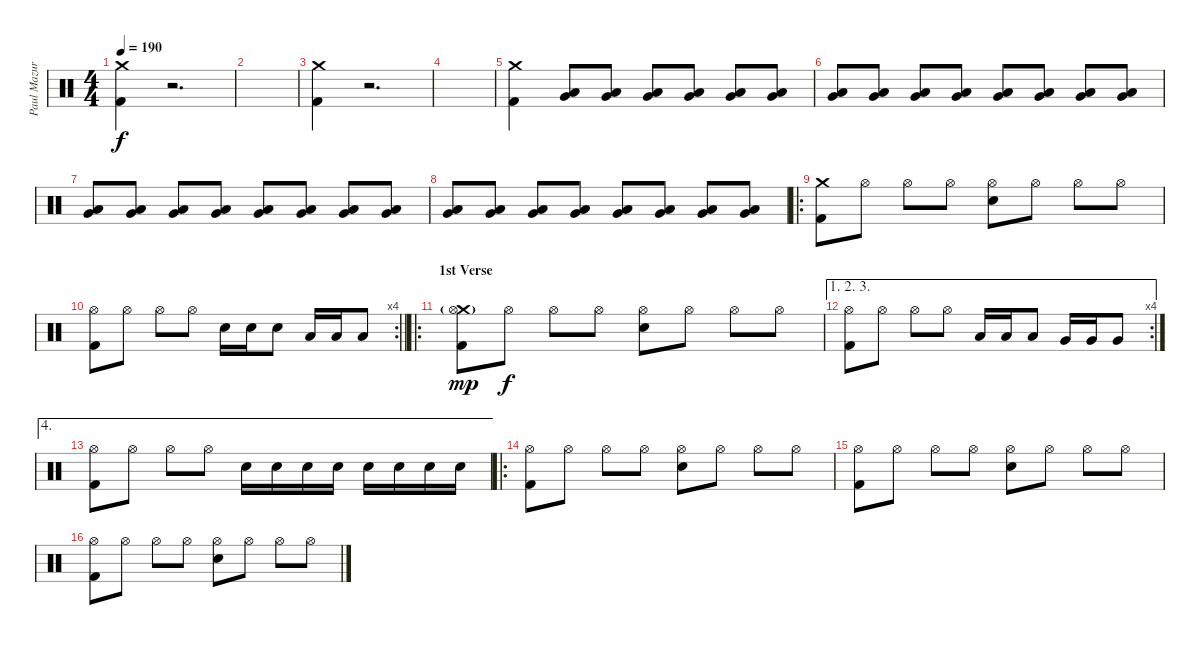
\track ("Paul Mazurkiewicz" "Paul Mazur") {instrument percussion}
\staff {score}
\articulation defaults
\ts (4 4)
\tempo 190
\clef neutral
\ks c
("Crash medium (hit)" "Kick (hit) 2").4{dy f} r.2{d} |
|
("Crash medium (hit)" "Kick (hit) 2").4 r.2{d} |
|
("Crash medium (hit)" "Kick (hit) 2").4 ("Very Low Tom (hit)" "Low Floor Tom (hit)").8{volume 7} ("Very Low Tom (hit)" "Low Floor Tom (hit)").8{volume 13} ("Very Low Tom (hit)" "Low Floor Tom (hit)").8 ("Very Low Tom (hit)" "Low Floor Tom (hit)").8 ("Very Low Tom (hit)" "Low Floor Tom (hit)").8 ("Very Low Tom (hit)" "Low Floor Tom (hit)").8 |
("Very Low Tom (hit)" "Low Floor Tom (hit)").8 ("Very Low Tom (hit)" "Low Floor Tom (hit)").8 ("Very Low Tom (hit)" "Low Floor Tom (hit)").8 ("Very Low Tom (hit)" "Low Floor Tom (hit)").8 ("Very Low Tom (hit)" "Low Floor Tom (hit)").8 ("Very Low Tom (hit)" "Low Floor Tom (hit)").8 ("Very Low Tom (hit)" "Low Floor Tom (hit)").8 ("Very Low Tom (hit)" "Low Floor Tom (hit)").8 |
("Very Low Tom (hit)" "Low Floor Tom (hit)").8 ("Very Low Tom (hit)" "Low Floor Tom (hit)").8 ("Very Low Tom (hit)" "Low Floor Tom (hit)").8 ("Very Low Tom (hit)" "Low Floor Tom (hit)").8 ("Very Low Tom (hit)" "Low Floor Tom (hit)").8 ("Very Low Tom (hit)" "Low Floor Tom (hit)").8 ("Very Low Tom (hit)" "Low Floor Tom (hit)").8 ("Very Low Tom (hit)" "Low Floor Tom (hit)").8 |
("Very Low Tom (hit)" "Low Floor Tom (hit)").8 ("Very Low Tom (hit)" "Low Floor Tom (hit)").8 ("Very Low Tom (hit)" "Low Floor Tom (hit)").8 ("Very Low Tom (hit)" "Low Floor Tom (hit)").8 ("Very Low Tom (hit)" "Low Floor Tom (hit)").8 ("Very Low Tom (hit)" "Low Floor Tom (hit)").8 ("Very Low Tom (hit)" "Low Floor Tom (hit)").8 ("Very Low Tom (hit)" "Low Floor Tom (hit)").8 |
\ro
("Crash medium (hit)" "Kick (hit) 2").8 "Hi-Hat (open)".8 "Hi-Hat (open)".8 "Hi-Hat (open)".8 ("Hi-Hat (open)" "Electric Snare (hit)").8 "Hi-Hat (open)".8 "Hi-Hat (open)".8 "Hi-Hat (open)".8 |
\rc 4
\barLineRight lightlight
("Hi-Hat (open)" "Kick (hit) 2").8 "Hi-Hat (open)".8 "Hi-Hat (open)".8 "Hi-Hat (open)".8 "Electric Snare (hit)".16 "Electric Snare (hit)".16 "Electric Snare (hit)".8 "Low Tom (hit)".16 "Low Tom (hit)".16 "Low Tom (hit)".8 |
\ro
\section ("" "1st Verse")
("Crash medium (hit)"{g} "Hi-Hat (open)" "Kick (hit) 2").8{dy mp} "Hi-Hat (open)".8{dy f} "Hi-Hat (open)".8 "Hi-Hat (open)".8 ("Hi-Hat (open)" "Electric Snare (hit)").8 "Hi-Hat (open)".8 "Hi-Hat (open)".8 "Hi-Hat (open)".8 |
\ae (1 2 3)
\rc 4
("Hi-Hat (open)" "Kick (hit) 2").8 "Hi-Hat (open)".8 "Hi-Hat (open)".8 "Hi-Hat (open)".8 "Low Tom (hit)".16 "Low Tom (hit)".16 "Low Tom (hit)".8 "Very Low Tom (hit)".16 "Very Low Tom (hit)".16 "Very Low Tom (hit)".8 |
\ae 4
("Hi-Hat (open)" "Kick (hit) 2").8 "Hi-Hat (open)".8 "Hi-Hat (open)".8 "Hi-Hat (open)".8 "Electric Snare (hit)".16 "Electric Snare (hit)".16 "Electric Snare (hit)".16 "Electric Snare (hit)".16 "Electric Snare (hit)".16 "Electric Snare (hit)".16 "Electric Snare (hit)".16 "Electric Snare (hit)".16 |
\ro
("Hi-Hat (open)" "Kick (hit) 2").8 "Hi-Hat (open)".8 "Hi-Hat (open)".8 "Hi-Hat (open)".8 ("Hi-Hat (open)" "Electric Snare (hit)").8 "Hi-Hat (open)".8 "Hi-Hat (open)".8 "Hi-Hat (open)".8 |
("Hi-Hat (open)" "Kick (hit) 2").8 "Hi-Hat (open)".8 "Hi-Hat (open)".8 "Hi-Hat (open)".8 ("Hi-Hat (open)" "Electric Snare (hit)").8 "Hi-Hat (open)".8 "Hi-Hat (open)".8 "Hi-Hat (open)".8 |
("Hi-Hat (open)" "Kick (hit) 2").8 "Hi-Hat (open)".8 "Hi-Hat (open)".8 "Hi-Hat (open)".8 ("Hi-Hat (open)" "Electric Snare (hit)").8 "Hi-Hat (open)".8 "Hi-Hat (open)".8 "Hi-Hat (open)".8
